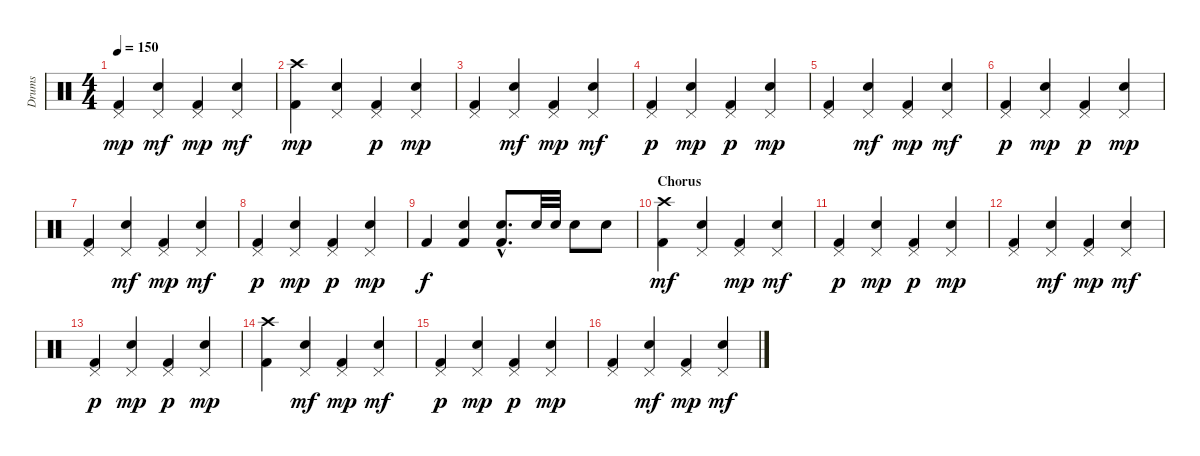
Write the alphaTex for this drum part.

\track ("Drums" "Drums") {instrument percussion}
\staff {score}
\articulation defaults
\ts (4 4)
\tempo 150
\clef neutral
\ks c
("Pedal Hi-Hat (hit)" "Kick (hit) 2").4{dy mp} ("Pedal Hi-Hat (hit)" "Electric Snare (hit)").4{dy mf} ("Pedal Hi-Hat (hit)" "Kick (hit) 2").4{dy mp} ("Pedal Hi-Hat (hit)" "Electric Snare (hit)").4{dy mf} |
("Crash high (hit)" "Kick (hit) 2").4{dy mp} ("Pedal Hi-Hat (hit)" "Electric Snare (hit)").4 ("Pedal Hi-Hat (hit)" "Kick (hit) 2").4{dy p} ("Pedal Hi-Hat (hit)" "Electric Snare (hit)").4{dy mp} |
("Pedal Hi-Hat (hit)" "Kick (hit) 2").4 ("Pedal Hi-Hat (hit)" "Electric Snare (hit)").4{dy mf} ("Pedal Hi-Hat (hit)" "Kick (hit) 2").4{dy mp} ("Pedal Hi-Hat (hit)" "Electric Snare (hit)").4{dy mf} |
("Pedal Hi-Hat (hit)" "Kick (hit) 2").4{dy p} ("Pedal Hi-Hat (hit)" "Electric Snare (hit)").4{dy mp} ("Pedal Hi-Hat (hit)" "Kick (hit) 2").4{dy p} ("Pedal Hi-Hat (hit)" "Electric Snare (hit)").4{dy mp} |
("Pedal Hi-Hat (hit)" "Kick (hit) 2").4 ("Pedal Hi-Hat (hit)" "Electric Snare (hit)").4{dy mf} ("Pedal Hi-Hat (hit)" "Kick (hit) 2").4{dy mp} ("Pedal Hi-Hat (hit)" "Electric Snare (hit)").4{dy mf} |
("Pedal Hi-Hat (hit)" "Kick (hit) 2").4{dy p} ("Pedal Hi-Hat (hit)" "Electric Snare (hit)").4{dy mp} ("Pedal Hi-Hat (hit)" "Kick (hit) 2").4{dy p} ("Pedal Hi-Hat (hit)" "Electric Snare (hit)").4{dy mp} |
("Pedal Hi-Hat (hit)" "Kick (hit) 2").4 ("Pedal Hi-Hat (hit)" "Electric Snare (hit)").4{dy mf} ("Pedal Hi-Hat (hit)" "Kick (hit) 2").4{dy mp} ("Pedal Hi-Hat (hit)" "Electric Snare (hit)").4{dy mf} |
("Pedal Hi-Hat (hit)" "Kick (hit) 2").4{dy p} ("Pedal Hi-Hat (hit)" "Electric Snare (hit)").4{dy mp} ("Pedal Hi-Hat (hit)" "Kick (hit) 2").4{dy p} ("Pedal Hi-Hat (hit)" "Electric Snare (hit)").4{dy mp} |
"Kick (hit) 2".4{dy f} ("Electric Snare (hit)" "Kick (hit) 2").4 ("Electric Snare (hit)"{hac} "Kick (hit) 2"{hac}).8{d} "Electric Snare (hit)".32 "Electric Snare (hit)".32 "Electric Snare (hit)".8 "Electric Snare (hit)".8 |
\section ("" "Chorus")
("Crash high (hit)" "Kick (hit) 2").4{dy mf} ("Pedal Hi-Hat (hit)" "Electric Snare (hit)").4 ("Pedal Hi-Hat (hit)" "Kick (hit) 2").4{dy mp} ("Pedal Hi-Hat (hit)" "Electric Snare (hit)").4{dy mf} |
("Pedal Hi-Hat (hit)" "Kick (hit) 2").4{dy p} ("Pedal Hi-Hat (hit)" "Electric Snare (hit)").4{dy mp} ("Pedal Hi-Hat (hit)" "Kick (hit) 2").4{dy p} ("Pedal Hi-Hat (hit)" "Electric Snare (hit)").4{dy mp} |
("Pedal Hi-Hat (hit)" "Kick (hit) 2").4 ("Pedal Hi-Hat (hit)" "Electric Snare (hit)").4{dy mf} ("Pedal Hi-Hat (hit)" "Kick (hit) 2").4{dy mp} ("Pedal Hi-Hat (hit)" "Electric Snare (hit)").4{dy mf} |
("Pedal Hi-Hat (hit)" "Kick (hit) 2").4{dy p} ("Pedal Hi-Hat (hit)" "Electric Snare (hit)").4{dy mp} ("Pedal Hi-Hat (hit)" "Kick (hit) 2").4{dy p} ("Pedal Hi-Hat (hit)" "Electric Snare (hit)").4{dy mp} |
("Crash high (hit)" "Kick (hit) 2").4 ("Pedal Hi-Hat (hit)" "Electric Snare (hit)").4{dy mf} ("Pedal Hi-Hat (hit)" "Kick (hit) 2").4{dy mp} ("Pedal Hi-Hat (hit)" "Electric Snare (hit)").4{dy mf} |
("Pedal Hi-Hat (hit)" "Kick (hit) 2").4{dy p} ("Pedal Hi-Hat (hit)" "Electric Snare (hit)").4{dy mp} ("Pedal Hi-Hat (hit)" "Kick (hit) 2").4{dy p} ("Pedal Hi-Hat (hit)" "Electric Snare (hit)").4{dy mp} |
("Pedal Hi-Hat (hit)" "Kick (hit) 2").4 ("Pedal Hi-Hat (hit)" "Electric Snare (hit)").4{dy mf} ("Pedal Hi-Hat (hit)" "Kick (hit) 2").4{dy mp} ("Pedal Hi-Hat (hit)" "Electric Snare (hit)").4{dy mf}
